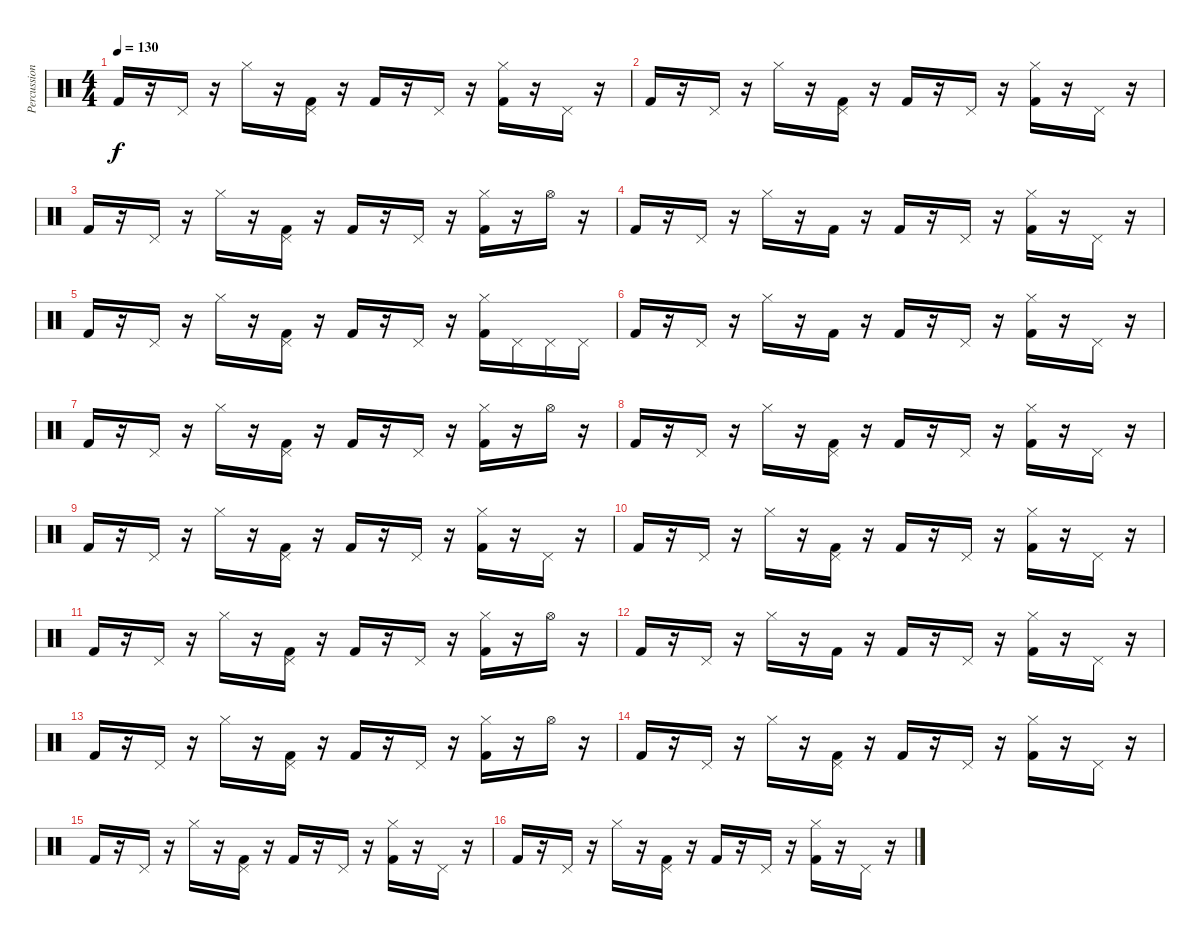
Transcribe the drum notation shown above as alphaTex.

\track ("Percussion" "Percussion") {instrument percussion}
\staff {score}
\articulation defaults
\ts (4 4)
\tempo 130
\clef neutral
\ks c "Kick (hit) 2".16{dy f}
r.16 "Pedal Hi-Hat (hit)".16 r.16 "Hi-Hat (closed)".16 r.16 ("Kick (hit) 2" "Pedal Hi-Hat (hit)").16 r.16 "Kick (hit) 2".16 r.16 "Pedal Hi-Hat (hit)".16 r.16 ("Kick (hit) 2" "Hi-Hat (closed)").16 r.16 "Pedal Hi-Hat (hit)".16 r.16 |
"Kick (hit) 2".16 r.16 "Pedal Hi-Hat (hit)".16 r.16 "Hi-Hat (closed)".16 r.16 ("Kick (hit) 2" "Pedal Hi-Hat (hit)").16 r.16 "Kick (hit) 2".16 r.16 "Pedal Hi-Hat (hit)".16 r.16 ("Kick (hit) 2" "Hi-Hat (closed)").16 r.16 "Pedal Hi-Hat (hit)".16 r.16 |
"Kick (hit) 2".16 r.16 "Pedal Hi-Hat (hit)".16 r.16 "Hi-Hat (closed)".16 r.16 ("Kick (hit) 2" "Pedal Hi-Hat (hit)").16 r.16 "Kick (hit) 2".16 r.16 "Pedal Hi-Hat (hit)".16 r.16 ("Kick (hit) 2" "Hi-Hat (closed)").16 r.16 "Hi-Hat (open)".16 r.16 |
"Kick (hit) 2".16 r.16 "Pedal Hi-Hat (hit)".16 r.16 "Hi-Hat (closed)".16 r.16 "Kick (hit) 2".16 r.16 "Kick (hit) 2".16 r.16 "Pedal Hi-Hat (hit)".16 r.16 ("Kick (hit) 2" "Hi-Hat (closed)").16 r.16 "Pedal Hi-Hat (hit)".16 r.16 |
"Kick (hit) 2".16 r.16 "Pedal Hi-Hat (hit)".16 r.16 "Hi-Hat (closed)".16 r.16 ("Kick (hit) 2" "Pedal Hi-Hat (hit)").16 r.16 "Kick (hit) 2".16 r.16 "Pedal Hi-Hat (hit)".16 r.16 ("Kick (hit) 2" "Hi-Hat (closed)").16 "Pedal Hi-Hat (hit)".16 "Pedal Hi-Hat (hit)".16 "Pedal Hi-Hat (hit)".16 |
"Kick (hit) 2".16 r.16 "Pedal Hi-Hat (hit)".16 r.16 "Hi-Hat (closed)".16 r.16 "Kick (hit) 2".16 r.16 "Kick (hit) 2".16 r.16 "Pedal Hi-Hat (hit)".16 r.16 ("Kick (hit) 2" "Hi-Hat (closed)").16 r.16 "Pedal Hi-Hat (hit)".16 r.16 |
"Kick (hit) 2".16 r.16 "Pedal Hi-Hat (hit)".16 r.16 "Hi-Hat (closed)".16 r.16 ("Kick (hit) 2" "Pedal Hi-Hat (hit)").16 r.16 "Kick (hit) 2".16 r.16 "Pedal Hi-Hat (hit)".16 r.16 ("Kick (hit) 2" "Hi-Hat (closed)").16 r.16 "Hi-Hat (open)".16 r.16 |
"Kick (hit) 2".16 r.16 "Pedal Hi-Hat (hit)".16 r.16 "Hi-Hat (closed)".16 r.16 ("Kick (hit) 2" "Pedal Hi-Hat (hit)").16 r.16 "Kick (hit) 2".16 r.16 "Pedal Hi-Hat (hit)".16 r.16 ("Kick (hit) 2" "Hi-Hat (closed)").16 r.16 "Pedal Hi-Hat (hit)".16 r.16 |
"Kick (hit) 2".16 r.16 "Pedal Hi-Hat (hit)".16 r.16 "Hi-Hat (closed)".16 r.16 ("Kick (hit) 2" "Pedal Hi-Hat (hit)").16 r.16 "Kick (hit) 2".16 r.16 "Pedal Hi-Hat (hit)".16 r.16 ("Kick (hit) 2" "Hi-Hat (closed)").16 r.16 "Pedal Hi-Hat (hit)".16 r.16 |
"Kick (hit) 2".16 r.16 "Pedal Hi-Hat (hit)".16 r.16 "Hi-Hat (closed)".16 r.16 ("Kick (hit) 2" "Pedal Hi-Hat (hit)").16 r.16 "Kick (hit) 2".16 r.16 "Pedal Hi-Hat (hit)".16 r.16 ("Kick (hit) 2" "Hi-Hat (closed)").16 r.16 "Pedal Hi-Hat (hit)".16 r.16 |
"Kick (hit) 2".16 r.16 "Pedal Hi-Hat (hit)".16 r.16 "Hi-Hat (closed)".16 r.16 ("Kick (hit) 2" "Pedal Hi-Hat (hit)").16 r.16 "Kick (hit) 2".16 r.16 "Pedal Hi-Hat (hit)".16 r.16 ("Kick (hit) 2" "Hi-Hat (closed)").16 r.16 "Hi-Hat (open)".16 r.16 |
"Kick (hit) 2".16 r.16 "Pedal Hi-Hat (hit)".16 r.16 "Hi-Hat (closed)".16 r.16 "Kick (hit) 2".16 r.16 "Kick (hit) 2".16 r.16 "Pedal Hi-Hat (hit)".16 r.16 ("Kick (hit) 2" "Hi-Hat (closed)").16 r.16 "Pedal Hi-Hat (hit)".16 r.16 |
"Kick (hit) 2".16 r.16 "Pedal Hi-Hat (hit)".16 r.16 "Hi-Hat (closed)".16 r.16 ("Kick (hit) 2" "Pedal Hi-Hat (hit)").16 r.16 "Kick (hit) 2".16 r.16 "Pedal Hi-Hat (hit)".16 r.16 ("Kick (hit) 2" "Hi-Hat (closed)").16 r.16 "Hi-Hat (open)".16 r.16 |
"Kick (hit) 2".16 r.16 "Pedal Hi-Hat (hit)".16 r.16 "Hi-Hat (closed)".16 r.16 ("Kick (hit) 2" "Pedal Hi-Hat (hit)").16 r.16 "Kick (hit) 2".16 r.16 "Pedal Hi-Hat (hit)".16 r.16 ("Kick (hit) 2" "Hi-Hat (closed)").16 r.16 "Pedal Hi-Hat (hit)".16 r.16 |
"Kick (hit) 2".16 r.16 "Pedal Hi-Hat (hit)".16 r.16 "Hi-Hat (closed)".16 r.16 ("Kick (hit) 2" "Pedal Hi-Hat (hit)").16 r.16 "Kick (hit) 2".16 r.16 "Pedal Hi-Hat (hit)".16 r.16 ("Kick (hit) 2" "Hi-Hat (closed)").16 r.16 "Pedal Hi-Hat (hit)".16 r.16 |
"Kick (hit) 2".16 r.16 "Pedal Hi-Hat (hit)".16 r.16 "Hi-Hat (closed)".16 r.16 ("Kick (hit) 2" "Pedal Hi-Hat (hit)").16 r.16 "Kick (hit) 2".16 r.16 "Pedal Hi-Hat (hit)".16 r.16 ("Kick (hit) 2" "Hi-Hat (closed)").16 r.16 "Pedal Hi-Hat (hit)".16 r.16
